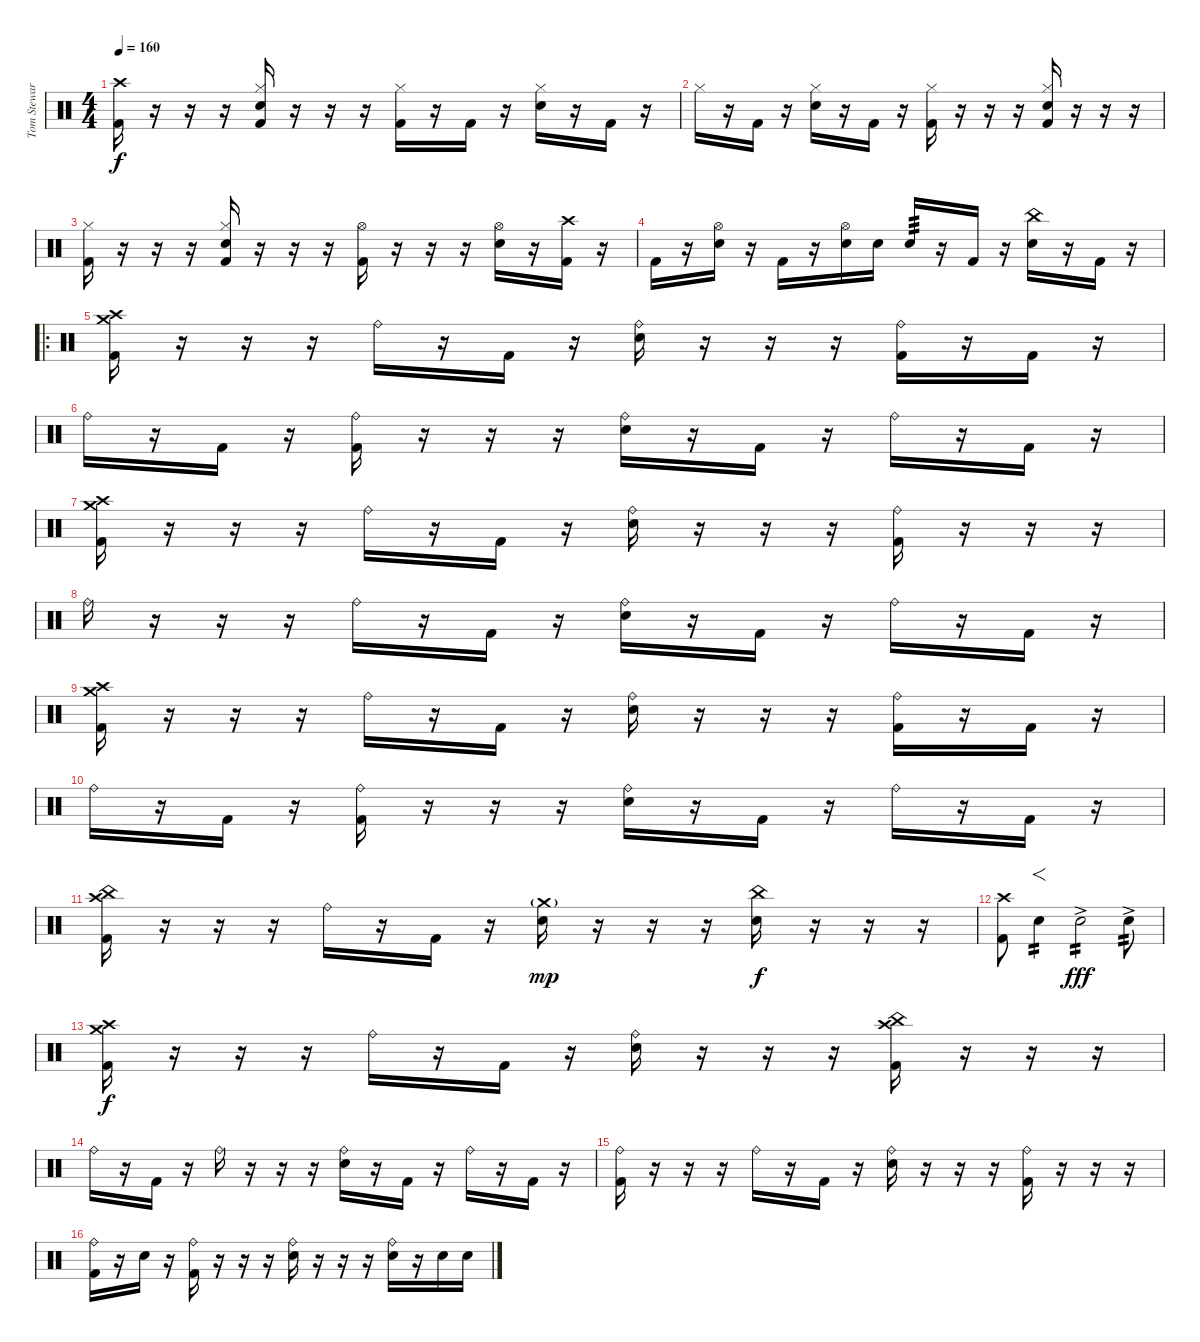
\track ("Tom Steward" "Tom Stewar") {instrument percussion}
\staff {score}
\articulation defaults
\ts (4 4)
\tempo 160
\clef neutral
\ks c
("Crash high (hit)" "Kick (hit) 2").16{dy f} r.16 r.16 r.16 ("Hi-Hat (closed)" "Snare (hit) 2" "Kick (hit) 2").16 r.16 r.16 r.16 ("Hi-Hat (closed)" "Kick (hit) 2").16 r.16 "Kick (hit) 2".16 r.16 ("Hi-Hat (closed)" "Snare (hit) 2").16 r.16 "Kick (hit) 2".16 r.16 |
"Hi-Hat (closed)".16 r.16 "Kick (hit) 2".16 r.16 ("Hi-Hat (closed)" "Snare (hit) 2").16 r.16 "Kick (hit) 2".16 r.16 ("Hi-Hat (closed)" "Kick (hit) 2").16 r.16 r.16 r.16 ("Hi-Hat (closed)" "Snare (hit) 2" "Kick (hit) 2").16 r.16 r.16 r.16 |
("Hi-Hat (closed)" "Kick (hit) 2").16 r.16 r.16 r.16 ("Hi-Hat (closed)" "Snare (hit) 2" "Kick (hit) 2").16 r.16 r.16 r.16 ("Hi-Hat (open)" "Kick (hit) 2").16 r.16 r.16 r.16 ("Hi-Hat (open)" "Snare (hit) 2").16 r.16 ("Crash high (hit)" "Kick (hit) 2").16 r.16 |
"Kick (hit) 2".16 r.16 ("Hi-Hat (open)" "Snare (hit) 2").16 r.16 "Kick (hit) 2".16 r.16 ("Hi-Hat (open)" "Snare (hit) 2").16 "Snare (hit) 2".16 "Snare (hit) 2".16{tp 3} r.16 "Kick (hit) 2".16 r.16 ("China (hit)" "Snare (hit) 2").16 r.16 "Kick (hit) 2".16 r.16 |
\ro
("Crash high (hit)" "Crash medium (hit)" "Kick (hit) 2").16 r.16 r.16 r.16 "Ride (bell)".16 r.16 "Kick (hit) 2".16 r.16 ("Ride (bell)" "Snare (hit) 2").16 r.16 r.16 r.16 ("Ride (bell)" "Kick (hit) 2").16 r.16 "Kick (hit) 2".16 r.16 |
"Ride (bell)".16 r.16 "Kick (hit) 2".16 r.16 ("Ride (bell)" "Kick (hit) 2").16 r.16 r.16 r.16 ("Ride (bell)" "Snare (hit) 2").16 r.16 "Kick (hit) 2".16 r.16 "Ride (bell)".16 r.16 "Kick (hit) 2".16 r.16 |
("Crash high (hit)" "Crash medium (hit)" "Kick (hit) 2").16 r.16 r.16 r.16 "Ride (bell)".16 r.16 "Kick (hit) 2".16 r.16 ("Ride (bell)" "Snare (hit) 2").16 r.16 r.16 r.16 ("Ride (bell)" "Kick (hit) 2").16 r.16 r.16 r.16 |
"Ride (bell)".16 r.16 r.16 r.16 "Ride (bell)".16 r.16 "Kick (hit) 2".16 r.16 ("Ride (bell)" "Snare (hit) 2").16 r.16 "Kick (hit) 2".16 r.16 "Ride (bell)".16 r.16 "Kick (hit) 2".16 r.16 |
("Crash high (hit)" "Crash medium (hit)" "Kick (hit) 2").16 r.16 r.16 r.16 "Ride (bell)".16 r.16 "Kick (hit) 2".16 r.16 ("Ride (bell)" "Snare (hit) 2").16 r.16 r.16 r.16 ("Ride (bell)" "Kick (hit) 2").16 r.16 "Kick (hit) 2".16 r.16 |
"Ride (bell)".16 r.16 "Kick (hit) 2".16 r.16 ("Ride (bell)" "Kick (hit) 2").16 r.16 r.16 r.16 ("Ride (bell)" "Snare (hit) 2").16 r.16 "Kick (hit) 2".16 r.16 "Ride (bell)".16 r.16 "Kick (hit) 2".16 r.16 |
("Crash high (hit)" "China (hit)" "Kick (hit) 2").16 r.16 r.16 r.16 "Ride (bell)".16 r.16 "Kick (hit) 2".16 r.16 ("Crash medium (hit)"{g} "Snare (hit) 2").16{dy mp} r.16 r.16 r.16 ("China (hit)" "Snare (hit) 2").16{dy f} r.16 r.16 r.16 |
("Crash high (hit)" "Kick (hit) 2").8 "Snare (hit) 2".4{f tp 2} "Snare (hit) 2"{ac}.2{tp 2 dy fff} "Snare (hit) 2"{ac}.8{tp 2} |
("Crash high (hit)" "Crash medium (hit)" "Kick (hit) 2").16{dy f} r.16 r.16 r.16 "Ride (bell)".16 r.16 "Kick (hit) 2".16 r.16 ("Ride (bell)" "Snare (hit) 2").16 r.16 r.16 r.16 ("Crash high (hit)" "China (hit)" "Kick (hit) 2").16 r.16 r.16 r.16 |
"Ride (bell)".16 r.16 "Kick (hit) 2".16 r.16 "Ride (bell)".16 r.16 r.16 r.16 ("Ride (bell)" "Snare (hit) 2").16 r.16 "Kick (hit) 2".16 r.16 "Ride (bell)".16 r.16 "Kick (hit) 2".16 r.16 |
("Ride (bell)" "Kick (hit) 2").16 r.16 r.16 r.16 "Ride (bell)".16 r.16 "Kick (hit) 2".16 r.16 ("Ride (bell)" "Snare (hit) 2").16 r.16 r.16 r.16 ("Ride (bell)" "Kick (hit) 2").16 r.16 r.16 r.16 |
("Ride (bell)" "Kick (hit) 2").16 r.16 "Snare (hit) 2".16 r.16 ("Ride (bell)" "Kick (hit) 2").16 r.16 r.16 r.16 ("Ride (bell)" "Snare (hit) 2").16 r.16 r.16 r.16 ("Ride (bell)" "Snare (hit) 2").16 r.16 "Snare (hit) 2".16 "Snare (hit) 2".16
